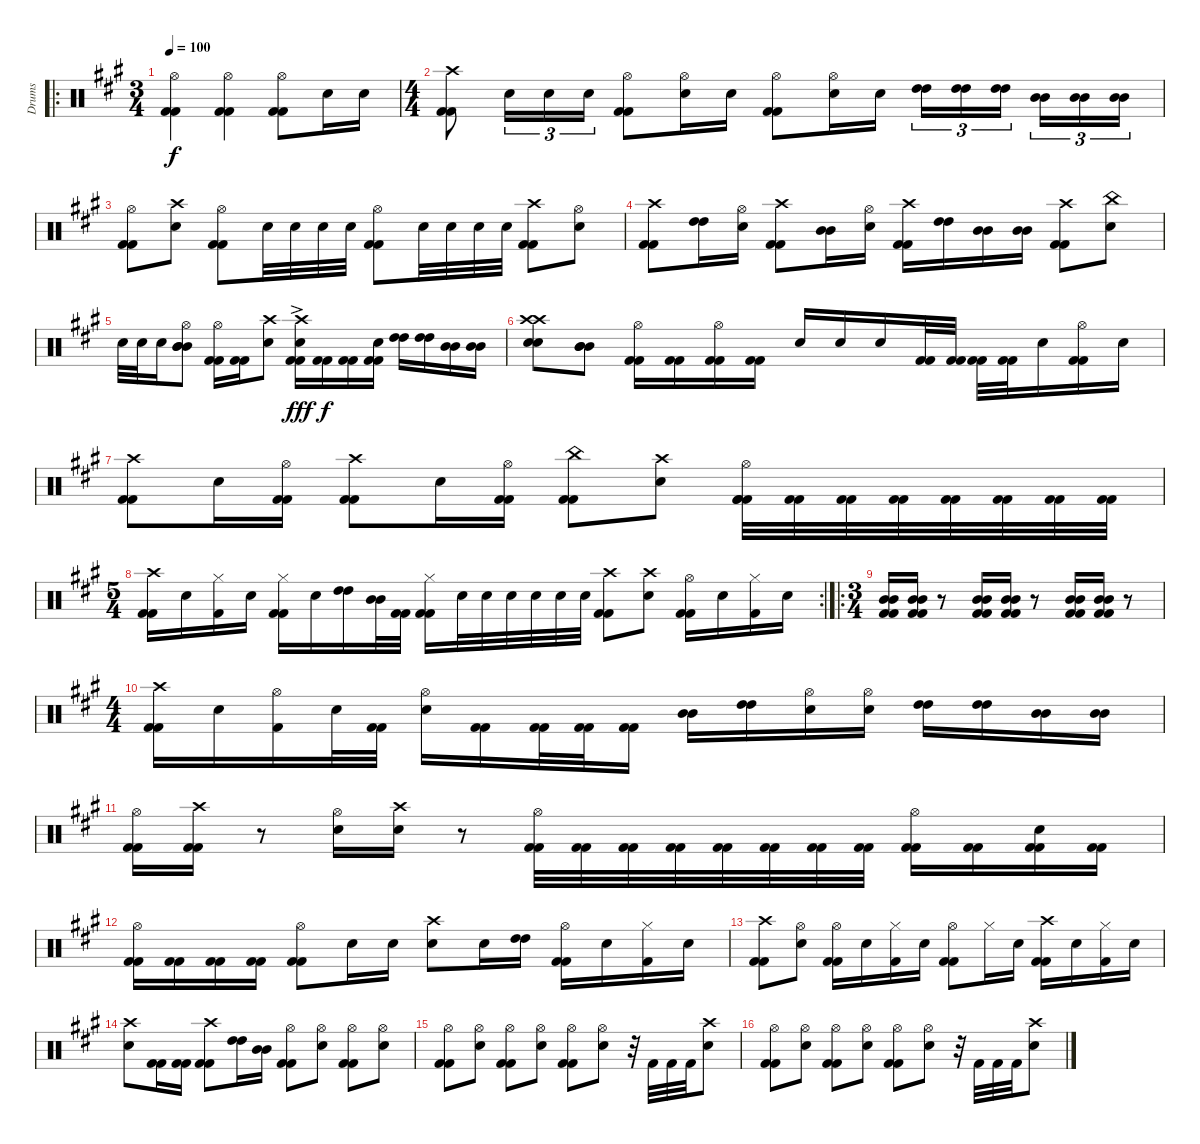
\track ("Drums" "Drums") {instrument percussion}
\staff {score}
\articulation defaults
\ro
\ts (3 4)
\tempo 100
\clef neutral
\ks a
("Hi-Hat (open)" "Kick (hit) 2" "Kick (hit) 2").4{dy f} ("Hi-Hat (open)" "Kick (hit) 2" "Kick (hit) 2").4 ("Hi-Hat (open)" "Kick (hit) 2" "Kick (hit) 2").8 "Electric Snare (hit)".16 "Electric Snare (hit)".16 |
\ts (4 4)
("Crash high (hit)" "Kick (hit) 2" "Kick (hit) 2").8 "Electric Snare (hit)".16{tu (3 2)} "Electric Snare (hit)".16{tu (3 2)} "Electric Snare (hit)".16{tu (3 2)} ("Hi-Hat (open)" "Kick (hit) 2" "Kick (hit) 2").8 ("Hi-Hat (open)" "Electric Snare (hit)").16 "Electric Snare (hit)".16 ("Hi-Hat (open)" "Kick (hit) 2" "Kick (hit) 2").8 ("Hi-Hat (open)" "Electric Snare (hit)").16 "Electric Snare (hit)".16 ("High Tom (hit)" "High Tom (hit)").16{tu (3 2)} ("High Tom (hit)" "High Tom (hit)").16{tu (3 2)} ("High Tom (hit)" "High Tom (hit)").16{tu (3 2)} ("Mid Tom (hit)" "Mid Tom (hit)").16{tu (3 2)} ("Mid Tom (hit)" "Mid Tom (hit)").16{tu (3 2)} ("Mid Tom (hit)" "Mid Tom (hit)").16{tu (3 2)} |
("Hi-Hat (open)" "Kick (hit) 2" "Kick (hit) 2").8 ("Crash high (hit)" "Electric Snare (hit)").8 ("Hi-Hat (open)" "Kick (hit) 2" "Kick (hit) 2").8 "Electric Snare (hit)".32 "Electric Snare (hit)".32 "Electric Snare (hit)".32 "Electric Snare (hit)".32 ("Hi-Hat (open)" "Kick (hit) 2" "Kick (hit) 2").8 "Electric Snare (hit)".32 "Electric Snare (hit)".32 "Electric Snare (hit)".32 "Electric Snare (hit)".32 ("Crash high (hit)" "Kick (hit) 2" "Kick (hit) 2").8 ("Hi-Hat (open)" "Electric Snare (hit)").8 |
("Crash high (hit)" "Kick (hit) 2" "Kick (hit) 2").8 ("High Tom (hit)" "High Tom (hit)").16 ("Hi-Hat (open)" "Electric Snare (hit)").16 ("Crash high (hit)" "Kick (hit) 2" "Kick (hit) 2").8 ("Mid Tom (hit)" "Mid Tom (hit)").16 ("Hi-Hat (open)" "Electric Snare (hit)").16 ("Crash high (hit)" "Kick (hit) 2" "Kick (hit) 2").16 ("High Tom (hit)" "High Tom (hit)").16 ("Mid Tom (hit)" "Mid Tom (hit)").16 ("Mid Tom (hit)" "Mid Tom (hit)").16 ("Crash high (hit)" "Kick (hit) 2" "Kick (hit) 2").8 ("China (hit)" "Electric Snare (hit)").8 |
"Electric Snare (hit)".32 "Electric Snare (hit)".32 "Electric Snare (hit)".16 ("Hi-Hat (open)" "Mid Tom (hit)" "Mid Tom (hit)" "Mid Tom (hit)").8 ("Hi-Hat (open)" "Kick (hit) 2" "Kick (hit) 2").16 ("Kick (hit) 2" "Kick (hit) 2").16 ("Crash high (hit)" "Electric Snare (hit)").8 ("Crash high (hit)" "Electric Snare (hit)"{ac} "Kick (hit) 2" "Kick (hit) 2").16{dy fff} ("Kick (hit) 2" "Kick (hit) 2").16{dy f} ("Kick (hit) 2" "Kick (hit) 2").16 ("Electric Snare (hit)" "Kick (hit) 2" "Kick (hit) 2").16 ("High Tom (hit)" "High Tom (hit)").16 ("High Tom (hit)" "High Tom (hit)").16 ("Mid Tom (hit)" "Mid Tom (hit)").16 ("Mid Tom (hit)" "Mid Tom (hit)").16 |
("Crash high (hit)" "Crash high (hit)" "Electric Snare (hit)" "Electric Snare (hit)").8 ("Mid Tom (hit)" "Mid Tom (hit)" "Mid Tom (hit)").8 ("Hi-Hat (open)" "Kick (hit) 2" "Kick (hit) 2").16 ("Kick (hit) 2" "Kick (hit) 2").16 ("Hi-Hat (open)" "Kick (hit) 2" "Kick (hit) 2").16 ("Kick (hit) 2" "Kick (hit) 2").16 "Electric Snare (hit)".16 "Electric Snare (hit)".16 "Electric Snare (hit)".16 ("Kick (hit) 2" "Kick (hit) 2").32 ("Kick (hit) 2" "Kick (hit) 2").32 ("Kick (hit) 2" "Kick (hit) 2").32 ("Kick (hit) 2" "Kick (hit) 2").32 "Electric Snare (hit)".16 ("Hi-Hat (open)" "Kick (hit) 2" "Kick (hit) 2").16 "Electric Snare (hit)".16 |
("Crash high (hit)" "Kick (hit) 2" "Kick (hit) 2").8 "Electric Snare (hit)".16 ("Hi-Hat (open)" "Kick (hit) 2" "Kick (hit) 2").16 ("Crash high (hit)" "Kick (hit) 2" "Kick (hit) 2").8 "Electric Snare (hit)".16 ("Hi-Hat (open)" "Kick (hit) 2" "Kick (hit) 2").16 ("China (hit)" "Kick (hit) 2" "Kick (hit) 2").8 ("Crash high (hit)" "Electric Snare (hit)").8 ("Hi-Hat (open)" "Kick (hit) 2" "Kick (hit) 2" "Kick (hit) 2").32 ("Kick (hit) 2" "Kick (hit) 2").32 ("Kick (hit) 2" "Kick (hit) 2").32 ("Kick (hit) 2" "Kick (hit) 2").32 ("Kick (hit) 2" "Kick (hit) 2").32 ("Kick (hit) 2" "Kick (hit) 2").32 ("Kick (hit) 2" "Kick (hit) 2").32 ("Kick (hit) 2" "Kick (hit) 2").32 |
\rc 2
\ts (5 4)
("Crash high (hit)" "Kick (hit) 2" "Kick (hit) 2").16 "Electric Snare (hit)".16 ("Hi-Hat (closed)" "Kick (hit) 2").16 "Electric Snare (hit)".16 ("Hi-Hat (closed)" "Kick (hit) 2" "Kick (hit) 2").16 "Electric Snare (hit)".16 ("High Tom (hit)" "High Tom (hit)").16 ("Mid Tom (hit)" "Mid Tom (hit)").32 ("Kick (hit) 2" "Kick (hit) 2").32 ("Hi-Hat (closed)" "Kick (hit) 2" "Kick (hit) 2").16 "Electric Snare (hit)".32 "Electric Snare (hit)".32 "Electric Snare (hit)".32 "Electric Snare (hit)".32 "Electric Snare (hit)".32 "Electric Snare (hit)".32 ("Crash high (hit)" "Kick (hit) 2" "Kick (hit) 2").8 ("Crash high (hit)" "Electric Snare (hit)").8 ("Hi-Hat (open)" "Kick (hit) 2" "Kick (hit) 2").16 "Electric Snare (hit)".16 ("Hi-Hat (closed)" "Kick (hit) 2").16 "Electric Snare (hit)".16 |
\ro
\ts (3 4)
("Mid Tom (hit)" "Mid Tom (hit)" "Kick (hit) 2" "Kick (hit) 2").16 ("Mid Tom (hit)" "Mid Tom (hit)" "Kick (hit) 2" "Kick (hit) 2").16 r.8 ("Mid Tom (hit)" "Mid Tom (hit)" "Kick (hit) 2" "Kick (hit) 2").16 ("Mid Tom (hit)" "Mid Tom (hit)" "Kick (hit) 2" "Kick (hit) 2").16 r.8 ("Mid Tom (hit)" "Mid Tom (hit)" "Kick (hit) 2" "Kick (hit) 2").16 ("Mid Tom (hit)" "Mid Tom (hit)" "Kick (hit) 2" "Kick (hit) 2").16 r.8 |
\ts (4 4)
("Crash high (hit)" "Kick (hit) 2" "Kick (hit) 2").16 "Electric Snare (hit)".16 ("Hi-Hat (open)" "Kick (hit) 2").16 "Electric Snare (hit)".32 ("Kick (hit) 2" "Kick (hit) 2").32 ("Hi-Hat (open)" "Electric Snare (hit)").16 ("Kick (hit) 2" "Kick (hit) 2").16 ("Kick (hit) 2" "Kick (hit) 2").32 ("Kick (hit) 2" "Kick (hit) 2").32 ("Kick (hit) 2" "Kick (hit) 2").16 ("Mid Tom (hit)" "Mid Tom (hit)").16 ("High Tom (hit)" "High Tom (hit)").16 ("Hi-Hat (open)" "Electric Snare (hit)").16 ("Hi-Hat (open)" "Electric Snare (hit)").16 ("High Tom (hit)" "High Tom (hit)").16 ("High Tom (hit)" "High Tom (hit)").16 ("Mid Tom (hit)" "Mid Tom (hit)").16 ("Mid Tom (hit)" "Mid Tom (hit)").16 |
("Hi-Hat (open)" "Kick (hit) 2" "Kick (hit) 2").16 ("Crash high (hit)" "Kick (hit) 2" "Kick (hit) 2").16 r.8 ("Hi-Hat (open)" "Electric Snare (hit)").16 ("Crash high (hit)" "Electric Snare (hit)").16 r.8 ("Hi-Hat (open)" "Kick (hit) 2" "Kick (hit) 2").32 ("Kick (hit) 2" "Kick (hit) 2").32 ("Kick (hit) 2" "Kick (hit) 2").32 ("Kick (hit) 2" "Kick (hit) 2").32 ("Kick (hit) 2" "Kick (hit) 2").32 ("Kick (hit) 2" "Kick (hit) 2").32 ("Kick (hit) 2" "Kick (hit) 2").32 ("Kick (hit) 2" "Kick (hit) 2").32 ("Hi-Hat (open)" "Kick (hit) 2" "Kick (hit) 2").16 ("Kick (hit) 2" "Kick (hit) 2").16 ("Electric Snare (hit)" "Kick (hit) 2" "Kick (hit) 2").16 ("Kick (hit) 2" "Kick (hit) 2").16 |
("Hi-Hat (open)" "Kick (hit) 2" "Kick (hit) 2").16 ("Kick (hit) 2" "Kick (hit) 2").16 ("Kick (hit) 2" "Kick (hit) 2").16 ("Kick (hit) 2" "Kick (hit) 2").16 ("Hi-Hat (open)" "Kick (hit) 2" "Kick (hit) 2").8 "Electric Snare (hit)".16 "Electric Snare (hit)".16 ("Crash high (hit)" "Electric Snare (hit)").8 "Electric Snare (hit)".16 ("High Tom (hit)" "High Tom (hit)").16 ("Hi-Hat (open)" "Kick (hit) 2" "Kick (hit) 2").16 "Electric Snare (hit)".16 ("Hi-Hat (closed)" "Kick (hit) 2").16 "Electric Snare (hit)".16 |
("Crash high (hit)" "Kick (hit) 2" "Kick (hit) 2").8 ("Hi-Hat (open)" "Electric Snare (hit)").8 ("Hi-Hat (open)" "Kick (hit) 2" "Kick (hit) 2").16 "Electric Snare (hit)".16 ("Hi-Hat (closed)" "Kick (hit) 2").16 "Electric Snare (hit)".16 ("Hi-Hat (open)" "Kick (hit) 2" "Kick (hit) 2").8 "Hi-Hat (closed)".16 "Electric Snare (hit)".16 ("Crash high (hit)" "Kick (hit) 2" "Kick (hit) 2").16 "Electric Snare (hit)".16 ("Hi-Hat (closed)" "Kick (hit) 2").16 "Electric Snare (hit)".16 |
("Crash high (hit)" "Electric Snare (hit)").8 ("Kick (hit) 2" "Kick (hit) 2").16 ("Kick (hit) 2" "Kick (hit) 2").16 ("Crash high (hit)" "Kick (hit) 2" "Kick (hit) 2").8 ("High Tom (hit)" "High Tom (hit)").16 ("Mid Tom (hit)" "Mid Tom (hit)").16 ("Hi-Hat (open)" "Kick (hit) 2" "Kick (hit) 2").8 ("Hi-Hat (open)" "Electric Snare (hit)").8 ("Hi-Hat (open)" "Kick (hit) 2" "Kick (hit) 2").8 ("Hi-Hat (open)" "Electric Snare (hit)").8 |
("Hi-Hat (open)" "Kick (hit) 2" "Kick (hit) 2").8 ("Hi-Hat (open)" "Electric Snare (hit)").8 ("Hi-Hat (open)" "Kick (hit) 2" "Kick (hit) 2").8 ("Hi-Hat (open)" "Electric Snare (hit)").8 ("Hi-Hat (open)" "Kick (hit) 2" "Kick (hit) 2").8 ("Hi-Hat (open)" "Electric Snare (hit)").8 r.32 "Kick (hit) 2".32 "Kick (hit) 2".32 "Kick (hit) 2".32 ("Crash high (hit)" "Electric Snare (hit)").8 |
("Hi-Hat (open)" "Kick (hit) 2" "Kick (hit) 2").8 ("Hi-Hat (open)" "Electric Snare (hit)").8 ("Hi-Hat (open)" "Kick (hit) 2" "Kick (hit) 2").8 ("Hi-Hat (open)" "Electric Snare (hit)").8 ("Hi-Hat (open)" "Kick (hit) 2" "Kick (hit) 2").8 ("Hi-Hat (open)" "Electric Snare (hit)").8 r.32 "Kick (hit) 2".32 "Kick (hit) 2".32 "Kick (hit) 2".32 ("Crash high (hit)" "Electric Snare (hit)").8
